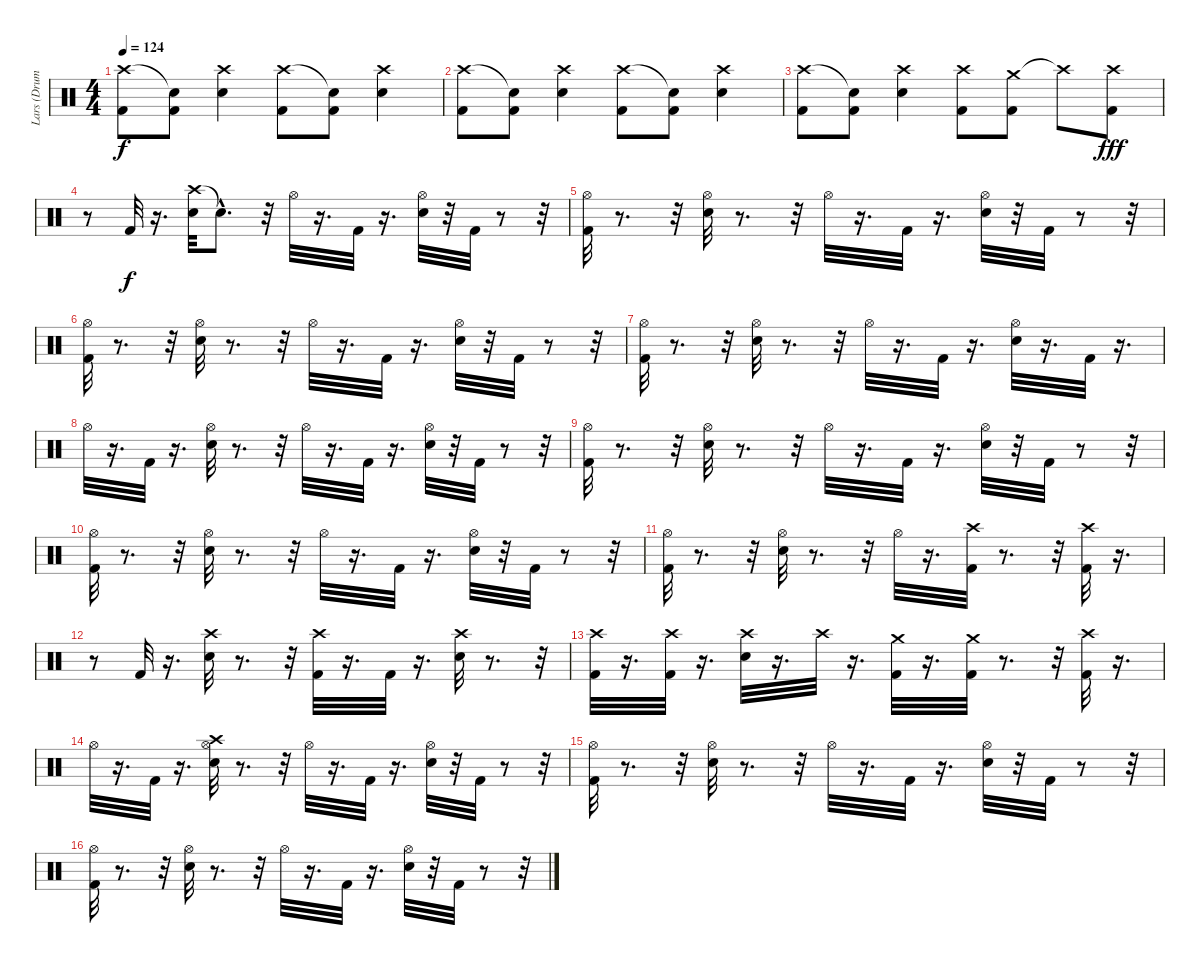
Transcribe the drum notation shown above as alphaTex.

\track ("Lars (Drums)" "Lars (Drum") {instrument percussion}
\staff {score}
\articulation defaults
\ts (4 4)
\tempo 124
\clef neutral
\ks c
("Crash high (hit)" "Kick (hit) 2").8{dy f} ("Snare (hit)"{t} "Kick (hit) 2").8 ("Crash high (hit)" "Snare (hit) 2").4 ("Crash high (hit)" "Kick (hit) 2").8 ("Snare (hit)"{t} "Kick (hit) 2").8 ("Crash high (hit)" "Snare (hit) 2").4 |
("Crash high (hit)" "Kick (hit) 2").8 ("Snare (hit)"{t} "Kick (hit) 2").8 ("Crash high (hit)" "Snare (hit) 2").4 ("Crash high (hit)" "Kick (hit) 2").8 ("Snare (hit)"{t} "Kick (hit) 2").8 ("Crash high (hit)" "Snare (hit) 2").4 |
("Crash high (hit)" "Kick (hit) 2").8 ("Snare (hit)"{t} "Kick (hit) 2").8 ("Crash high (hit)" "Snare (hit) 2").4 ("Crash high (hit)" "Kick (hit) 2").8 ("Crash medium (hit)" "Kick (hit) 2").8 "Crash high (hit)"{t}.8 ("Crash high (hit)" "Kick (hit) 2").8{dy fff} |
r.8 "Kick (hit) 2".32{dy f} r.16{d} ("Crash high (hit)" "Electric Snare (hit)").32 "Snare (hit)"{hac t}.8{d} r.32 "Hi-Hat (open)".32 r.16{d} "Kick (hit) 2".32 r.16{d} ("Electric Snare (hit)" "Hi-Hat (open)").32 r.32 "Kick (hit) 2".32 r.8 r.32 |
("Kick (hit) 2" "Hi-Hat (open)").32 r.8{d} r.32 ("Electric Snare (hit)" "Hi-Hat (open)").32 r.8{d} r.32 "Hi-Hat (open)".32 r.16{d} "Kick (hit) 2".32 r.16{d} ("Electric Snare (hit)" "Hi-Hat (open)").32 r.32 "Kick (hit) 2".32 r.8 r.32 |
("Kick (hit) 2" "Hi-Hat (open)").32 r.8{d} r.32 ("Electric Snare (hit)" "Hi-Hat (open)").32 r.8{d} r.32 "Hi-Hat (open)".32 r.16{d} "Kick (hit) 2".32 r.16{d} ("Electric Snare (hit)" "Hi-Hat (open)").32 r.32 "Kick (hit) 2".32 r.8 r.32 |
("Kick (hit) 2" "Hi-Hat (open)").32 r.8{d} r.32 ("Electric Snare (hit)" "Hi-Hat (open)").32 r.8{d} r.32 "Hi-Hat (open)".32 r.16{d} "Kick (hit) 2".32 r.16{d} ("Electric Snare (hit)" "Hi-Hat (open)").32 r.16{d} "Kick (hit) 2".32 r.16{d} |
"Hi-Hat (open)".32 r.16{d} "Kick (hit) 2".32 r.16{d} ("Hi-Hat (open)" "Electric Snare (hit)").32 r.8{d} r.32 "Hi-Hat (open)".32 r.16{d} "Kick (hit) 2".32 r.16{d} ("Electric Snare (hit)" "Hi-Hat (open)").32 r.32 "Kick (hit) 2".32 r.8 r.32 |
("Kick (hit) 2" "Hi-Hat (open)").32 r.8{d} r.32 ("Electric Snare (hit)" "Hi-Hat (open)").32 r.8{d} r.32 "Hi-Hat (open)".32 r.16{d} "Kick (hit) 2".32 r.16{d} ("Electric Snare (hit)" "Hi-Hat (open)").32 r.32 "Kick (hit) 2".32 r.8 r.32 |
("Kick (hit) 2" "Hi-Hat (open)").32 r.8{d} r.32 ("Electric Snare (hit)" "Hi-Hat (open)").32 r.8{d} r.32 "Hi-Hat (open)".32 r.16{d} "Kick (hit) 2".32 r.16{d} ("Electric Snare (hit)" "Hi-Hat (open)").32 r.32 "Kick (hit) 2".32 r.8 r.32 |
("Kick (hit) 2" "Hi-Hat (open)").32 r.8{d} r.32 ("Electric Snare (hit)" "Hi-Hat (open)").32 r.8{d} r.32 "Hi-Hat (open)".32 r.16{d} ("Crash high (hit)" "Kick (hit) 2").32 r.8{d} r.32 ("Crash high (hit)" "Kick (hit) 2").32 r.16{d} |
r.8 "Kick (hit) 2".32 r.16{d} ("Electric Snare (hit)" "Crash high (hit)").32 r.8{d} r.32 ("Kick (hit) 2" "Crash high (hit)").32 r.16{d} "Kick (hit) 2".32 r.16{d} ("Electric Snare (hit)" "Crash high (hit)").32 r.8{d} r.32 |
("Kick (hit) 2" "Crash high (hit)").32 r.16{d} ("Crash high (hit)" "Kick (hit) 2").32 r.16{d} ("Electric Snare (hit)" "Crash high (hit)").32 r.16{d} "Crash high (hit)".32 r.16{d} ("Crash medium (hit)" "Kick (hit) 2").32 r.16{d} ("Crash medium (hit)" "Kick (hit) 2").32 r.8{d} r.32 ("Kick (hit) 2" "Crash high (hit)").32 r.16{d} |
"Hi-Hat (open)".32 r.16{d} "Kick (hit) 2".32 r.16{d} ("Hi-Hat (open)" "Electric Snare (hit)" "Crash high (hit)").32 r.8{d} r.32 "Hi-Hat (open)".32 r.16{d} "Kick (hit) 2".32 r.16{d} ("Electric Snare (hit)" "Hi-Hat (open)").32 r.32 "Kick (hit) 2".32 r.8 r.32 |
("Kick (hit) 2" "Hi-Hat (open)").32 r.8{d} r.32 ("Electric Snare (hit)" "Hi-Hat (open)").32 r.8{d} r.32 "Hi-Hat (open)".32 r.16{d} "Kick (hit) 2".32 r.16{d} ("Electric Snare (hit)" "Hi-Hat (open)").32 r.32 "Kick (hit) 2".32 r.8 r.32 |
("Kick (hit) 2" "Hi-Hat (open)").32 r.8{d} r.32 ("Electric Snare (hit)" "Hi-Hat (open)").32 r.8{d} r.32 "Hi-Hat (open)".32 r.16{d} "Kick (hit) 2".32 r.16{d} ("Electric Snare (hit)" "Hi-Hat (open)").32 r.32 "Kick (hit) 2".32 r.8 r.32
